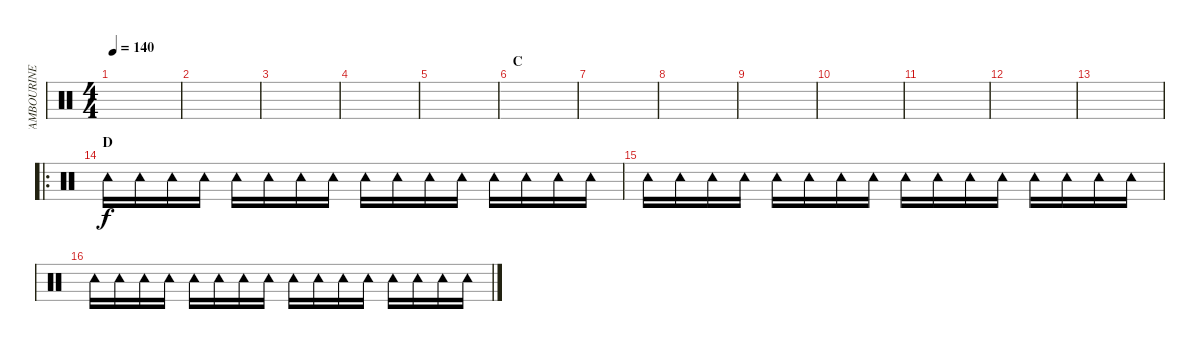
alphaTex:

\track ("TAMBOURINE" "TAMBOURINE") {instrument percussion}
\staff {score}
\articulation defaults
\ts (4 4)
\tempo 140
\clef neutral
\ks c
|
|
|
|
|
\section ("" "C")
|
|
|
|
|
|
|
|
\ro
\section ("" "D")
"Tambourine (hit)".16 "Tambourine (hit)".16 "Tambourine (hit)".16 "Tambourine (hit)".16 "Tambourine (hit)".16 "Tambourine (hit)".16 "Tambourine (hit)".16 "Tambourine (hit)".16 "Tambourine (hit)".16 "Tambourine (hit)".16 "Tambourine (hit)".16 "Tambourine (hit)".16 "Tambourine (hit)".16 "Tambourine (hit)".16 "Tambourine (hit)".16 "Tambourine (hit)".16 |
"Tambourine (hit)".16 "Tambourine (hit)".16 "Tambourine (hit)".16 "Tambourine (hit)".16 "Tambourine (hit)".16 "Tambourine (hit)".16 "Tambourine (hit)".16 "Tambourine (hit)".16 "Tambourine (hit)".16 "Tambourine (hit)".16 "Tambourine (hit)".16 "Tambourine (hit)".16 "Tambourine (hit)".16 "Tambourine (hit)".16 "Tambourine (hit)".16 "Tambourine (hit)".16 |
"Tambourine (hit)".16 "Tambourine (hit)".16 "Tambourine (hit)".16 "Tambourine (hit)".16 "Tambourine (hit)".16 "Tambourine (hit)".16 "Tambourine (hit)".16 "Tambourine (hit)".16 "Tambourine (hit)".16 "Tambourine (hit)".16 "Tambourine (hit)".16 "Tambourine (hit)".16 "Tambourine (hit)".16 "Tambourine (hit)".16 "Tambourine (hit)".16 "Tambourine (hit)".16
